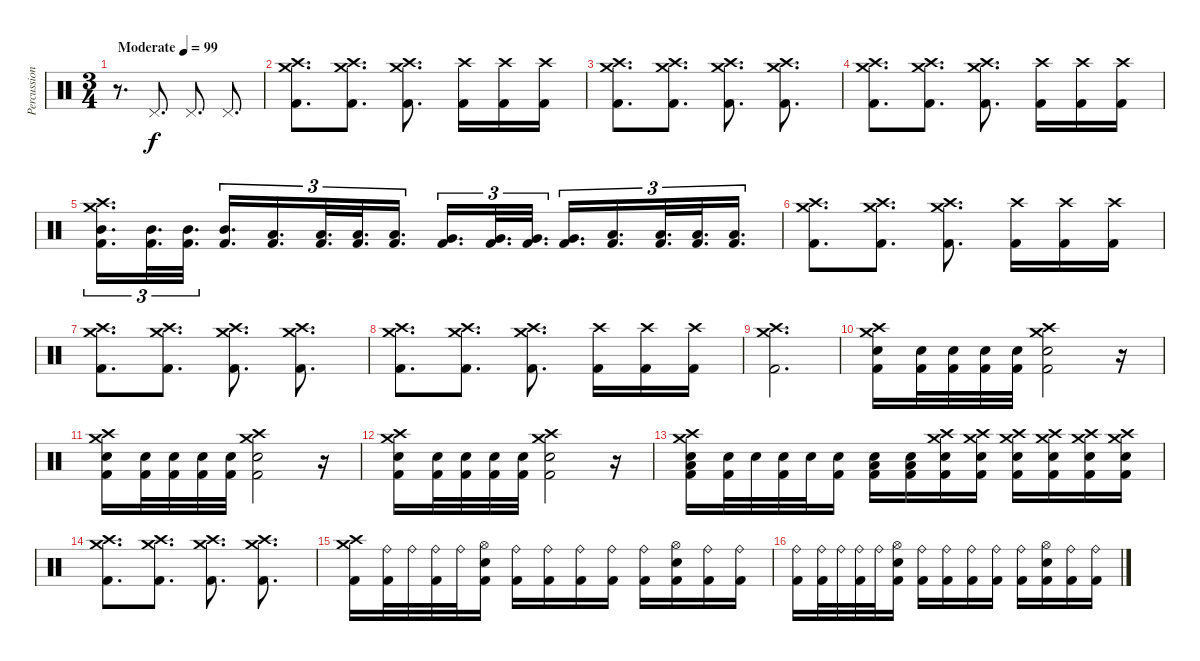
\track ("Percussion" "Percussion") {instrument percussion}
\staff {score}
\articulation defaults
\ts (3 4)
\tempo (99 "Moderate")
\clef neutral
\ks c
r.8{d dy f} "Pedal Hi-Hat (hit)".8{d} "Pedal Hi-Hat (hit)".8{d} "Pedal Hi-Hat (hit)".8{d} |
("Crash high (hit)" "Crash medium (hit)" "Kick (hit) 2").8{d} ("Crash high (hit)" "Crash medium (hit)" "Kick (hit) 2").8{d} ("Crash high (hit)" "Crash medium (hit)" "Kick (hit) 2").8{d} ("Crash high (hit)" "Kick (hit) 2").16 ("Crash high (hit)" "Kick (hit) 2").16 ("Crash high (hit)" "Kick (hit) 2").16 |
("Crash high (hit)" "Crash medium (hit)" "Kick (hit) 2").8{d} ("Crash high (hit)" "Crash medium (hit)" "Kick (hit) 2").8{d} ("Crash high (hit)" "Crash medium (hit)" "Kick (hit) 2").8{d} ("Crash high (hit)" "Crash medium (hit)" "Kick (hit) 2").8{d} |
("Crash high (hit)" "Crash medium (hit)" "Kick (hit) 2").8{d} ("Crash high (hit)" "Crash medium (hit)" "Kick (hit) 2").8{d} ("Crash high (hit)" "Crash medium (hit)" "Kick (hit) 2").8{d} ("Crash high (hit)" "Kick (hit) 2").16 ("Crash high (hit)" "Kick (hit) 2").16 ("Crash high (hit)" "Kick (hit) 2").16 |
("Crash high (hit)" "Crash medium (hit)" "Mid Tom (hit)" "Kick (hit) 2").16{d tu (3 2)} ("Mid Tom (hit)" "Kick (hit) 2").32{d tu (3 2)} ("Mid Tom (hit)" "Kick (hit) 2").32{d tu (3 2)} ("Mid Tom (hit)" "Kick (hit) 2").16{d tu (3 2)} ("Low Tom (hit)" "Kick (hit) 2").16{d tu (3 2)} ("Low Tom (hit)" "Kick (hit) 2").32{d tu (3 2)} ("Low Tom (hit)" "Kick (hit) 2").32{d tu (3 2)} ("Low Tom (hit)" "Kick (hit) 2").16{d tu (3 2)} ("Very Low Tom (hit)" "Kick (hit) 2").16{d tu (3 2)} ("Very Low Tom (hit)" "Kick (hit) 2").32{d tu (3 2)} ("Very Low Tom (hit)" "Kick (hit) 2").32{d tu (3 2)} ("Very Low Tom (hit)" "Kick (hit) 2").16{d tu (3 2)} ("Low Floor Tom (hit)" "Kick (hit) 2").16{d tu (3 2)} ("Low Floor Tom (hit)" "Kick (hit) 2").32{d tu (3 2)} ("Low Floor Tom (hit)" "Kick (hit) 2").32{d tu (3 2)} ("Low Floor Tom (hit)" "Kick (hit) 2").16{d tu (3 2)} |
("Crash high (hit)" "Crash medium (hit)" "Kick (hit) 2").8{d} ("Crash high (hit)" "Crash medium (hit)" "Kick (hit) 2").8{d} ("Crash high (hit)" "Crash medium (hit)" "Kick (hit) 2").8{d} ("Crash high (hit)" "Kick (hit) 2").16 ("Crash high (hit)" "Kick (hit) 2").16 ("Crash high (hit)" "Kick (hit) 2").16 |
("Crash high (hit)" "Crash medium (hit)" "Kick (hit) 2").8{d} ("Crash high (hit)" "Crash medium (hit)" "Kick (hit) 2").8{d} ("Crash high (hit)" "Crash medium (hit)" "Kick (hit) 2").8{d} ("Crash high (hit)" "Crash medium (hit)" "Kick (hit) 2").8{d} |
("Crash high (hit)" "Crash medium (hit)" "Kick (hit) 2").8{d} ("Crash high (hit)" "Crash medium (hit)" "Kick (hit) 2").8{d} ("Crash high (hit)" "Crash medium (hit)" "Kick (hit) 2").8{d} ("Crash high (hit)" "Kick (hit) 2").16 ("Crash high (hit)" "Kick (hit) 2").16 ("Crash high (hit)" "Kick (hit) 2").16 |
("Crash high (hit)" "Crash medium (hit)" "Kick (hit) 2").2{d} |
("Crash high (hit)" "Crash medium (hit)" "Electric Snare (hit)" "Kick (hit) 2").16 ("Electric Snare (hit)" "Kick (hit) 2").32 ("Electric Snare (hit)" "Kick (hit) 2").32 ("Electric Snare (hit)" "Kick (hit) 2").32 ("Electric Snare (hit)" "Kick (hit) 2").32 ("Crash high (hit)" "Crash medium (hit)" "Electric Snare (hit)" "Kick (hit) 2").2 r.16 |
("Crash high (hit)" "Crash medium (hit)" "Electric Snare (hit)" "Kick (hit) 2").16 ("Electric Snare (hit)" "Kick (hit) 2").32 ("Electric Snare (hit)" "Kick (hit) 2").32 ("Electric Snare (hit)" "Kick (hit) 2").32 ("Electric Snare (hit)" "Kick (hit) 2").32 ("Crash high (hit)" "Crash medium (hit)" "Electric Snare (hit)" "Kick (hit) 2").2 r.16 |
("Crash medium (hit)" "Crash high (hit)" "Electric Snare (hit)" "Kick (hit) 2").16 ("Electric Snare (hit)" "Kick (hit) 2").32 ("Electric Snare (hit)" "Kick (hit) 2").32 ("Electric Snare (hit)" "Kick (hit) 2").32 ("Electric Snare (hit)" "Kick (hit) 2").32 ("Crash medium (hit)" "Crash high (hit)" "Electric Snare (hit)" "Kick (hit) 2").2 r.16 |
("Crash medium (hit)" "Crash high (hit)" "Electric Snare (hit)" "Low Floor Tom (hit)" "Kick (hit) 2").16 ("Electric Snare (hit)" "Kick (hit) 2").32 "Electric Snare (hit)".32 ("Electric Snare (hit)" "Kick (hit) 2").32 "Electric Snare (hit)".32 ("Electric Snare (hit)" "Kick (hit) 2").16 ("Electric Snare (hit)" "Low Floor Tom (hit)" "Kick (hit) 2").16 ("Electric Snare (hit)" "Low Floor Tom (hit)" "Kick (hit) 2").16 ("Crash medium (hit)" "Crash high (hit)" "Electric Snare (hit)" "Kick (hit) 2").16 ("Crash medium (hit)" "Crash high (hit)" "Electric Snare (hit)" "Kick (hit) 2").16 ("Crash medium (hit)" "Crash high (hit)" "Electric Snare (hit)" "Kick (hit) 2").16 ("Crash medium (hit)" "Crash high (hit)" "Electric Snare (hit)" "Kick (hit) 2").16 ("Crash medium (hit)" "Crash high (hit)" "Electric Snare (hit)" "Kick (hit) 2").16 ("Crash medium (hit)" "Crash high (hit)" "Electric Snare (hit)" "Kick (hit) 2").16 |
("Crash high (hit)" "Crash medium (hit)" "Kick (hit) 2").8{d} ("Crash high (hit)" "Crash medium (hit)" "Kick (hit) 2").8{d} ("Crash high (hit)" "Crash medium (hit)" "Kick (hit) 2").8{d} ("Crash high (hit)" "Crash medium (hit)" "Kick (hit) 2").8{d} |
("Crash medium (hit)" "Crash high (hit)" "Kick (hit) 2").16 ("Ride (bell)" "Kick (hit) 2").32 "Ride (bell)".32 ("Ride (bell)" "Kick (hit) 2").32 "Ride (bell)".32 ("Hi-Hat (open)" "Electric Snare (hit)" "Kick (hit) 2").16 ("Ride (bell)" "Kick (hit) 2").16 ("Ride (bell)" "Kick (hit) 2").16 ("Ride (bell)" "Kick (hit) 2").16 ("Ride (bell)" "Kick (hit) 2").16 ("Ride (bell)" "Kick (hit) 2").16 ("Hi-Hat (open)" "Electric Snare (hit)" "Kick (hit) 2").16 ("Ride (bell)" "Kick (hit) 2").16 ("Ride (bell)" "Kick (hit) 2").16 |
("Ride (bell)" "Kick (hit) 2").16 ("Ride (bell)" "Kick (hit) 2").32 "Ride (bell)".32 ("Ride (bell)" "Kick (hit) 2").32 "Ride (bell)".32 ("Hi-Hat (open)" "Electric Snare (hit)" "Kick (hit) 2").16 ("Ride (bell)" "Kick (hit) 2").16 ("Ride (bell)" "Kick (hit) 2").16 ("Ride (bell)" "Kick (hit) 2").16 ("Ride (bell)" "Kick (hit) 2").16 ("Ride (bell)" "Kick (hit) 2").16 ("Hi-Hat (open)" "Electric Snare (hit)" "Kick (hit) 2").16 ("Ride (bell)" "Kick (hit) 2").16 ("Ride (bell)" "Kick (hit) 2").16
